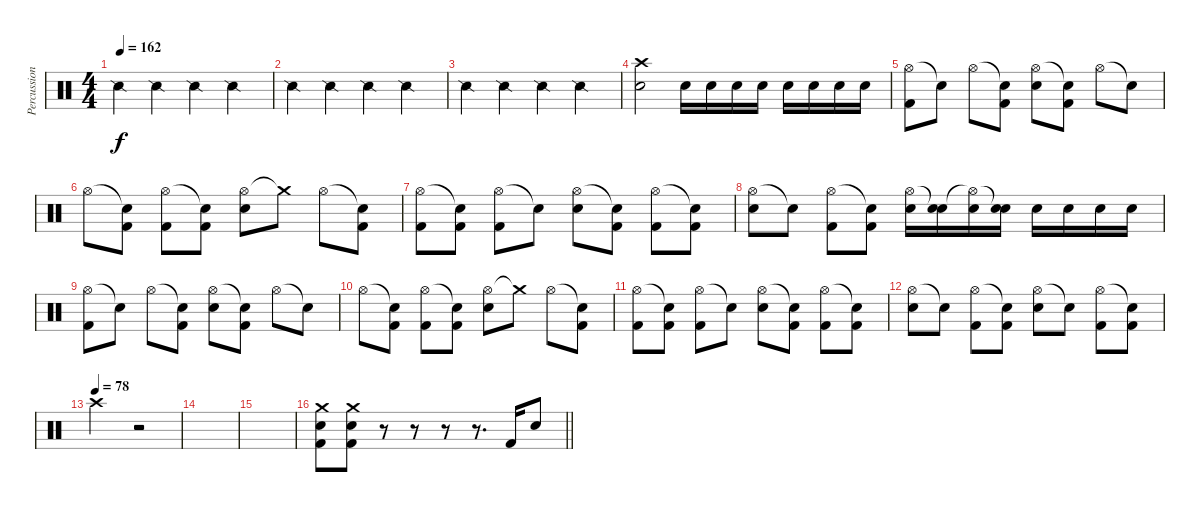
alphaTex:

\track ("Percussioni" "Percussion") {instrument percussion}
\staff {score}
\articulation defaults
\ts (4 4)
\tempo 162
\clef neutral
\ks c "Snare (side stick) 2".4{dy f} "Snare (side stick) 2".4 "Snare (side stick) 2".4 "Snare (side stick) 2".4
|
"Snare (side stick) 2".4 "Snare (side stick) 2".4 "Snare (side stick) 2".4 "Snare (side stick) 2".4 |
"Snare (side stick) 2".4 "Snare (side stick) 2".4 "Snare (side stick) 2".4 "Snare (side stick) 2".4 |
("Crash high (hit)" "Snare (hit) 2").2 "Snare (hit) 2".16 "Snare (hit) 2".16 "Snare (hit) 2".16 "Snare (hit) 2".16 "Snare (hit) 2".16 "Snare (hit) 2".16 "Snare (hit) 2".16 "Snare (hit) 2".16 |
("Hi-Hat (open)" "Kick (hit) 2").8 "Snare (hit)"{t}.8 "Hi-Hat (open)".8 ("Snare (hit)"{t} "Kick (hit) 2").8 ("Hi-Hat (open)" "Snare (hit) 2").8 ("Snare (hit)"{t} "Kick (hit) 2").8 "Hi-Hat (open)".8 "Snare (hit)"{t}.8 |
"Hi-Hat (open)".8 ("Snare (hit)"{t} "Kick (hit) 2").8 ("Hi-Hat (open)" "Kick (hit) 2").8 ("Snare (hit)"{t} "Kick (hit) 2").8 ("Hi-Hat (open)" "Snare (hit) 2").8 "Crash medium (hit)"{t}.8 "Hi-Hat (open)".8 ("Snare (hit)"{t} "Kick (hit) 2").8 |
("Hi-Hat (open)" "Kick (hit) 2").8 ("Snare (hit)"{t} "Kick (hit) 2").8 ("Hi-Hat (open)" "Kick (hit) 2").8 "Snare (hit)"{t}.8 ("Hi-Hat (open)" "Snare (hit) 2").8 ("Snare (hit)"{t} "Kick (hit) 2").8 ("Hi-Hat (open)" "Kick (hit) 2").8 ("Snare (hit)"{t} "Kick (hit) 2").8 |
("Hi-Hat (open)" "Snare (hit) 2").8 "Snare (hit)"{t}.8 ("Hi-Hat (open)" "Kick (hit) 2").8 ("Snare (hit)"{t} "Kick (hit) 2").8 ("Hi-Hat (open)" "Snare (hit) 2").16 ("Snare (hit)"{t} "Snare (hit) 2").16 ("Hi-Hat (open)"{t} "Snare (hit) 2").16 ("Snare (hit)"{t} "Snare (hit) 2").16 "Snare (hit) 2".16 "Snare (hit) 2".16 "Snare (hit) 2".16 "Snare (hit) 2".16 |
("Hi-Hat (open)" "Kick (hit) 2").8 "Snare (hit)"{t}.8 "Hi-Hat (open)".8 ("Snare (hit)"{t} "Kick (hit) 2").8 ("Hi-Hat (open)" "Snare (hit) 2").8 ("Snare (hit)"{t} "Kick (hit) 2").8 "Hi-Hat (open)".8 "Snare (hit)"{t}.8 |
"Hi-Hat (open)".8 ("Snare (hit)"{t} "Kick (hit) 2").8 ("Hi-Hat (open)" "Kick (hit) 2").8 ("Snare (hit)"{t} "Kick (hit) 2").8 ("Hi-Hat (open)" "Snare (hit) 2").8 "Crash medium (hit)"{t}.8 "Hi-Hat (open)".8 ("Snare (hit)"{t} "Kick (hit) 2").8 |
("Hi-Hat (open)" "Kick (hit) 2").8 ("Snare (hit)"{t} "Kick (hit) 2").8 ("Hi-Hat (open)" "Kick (hit) 2").8 "Snare (hit)"{t}.8 ("Hi-Hat (open)" "Snare (hit) 2").8 ("Snare (hit)"{t} "Kick (hit) 2").8 ("Hi-Hat (open)" "Kick (hit) 2").8 ("Snare (hit)"{t} "Kick (hit) 2").8 |
("Hi-Hat (open)" "Snare (hit) 2").8 "Snare (hit)"{t}.8 ("Hi-Hat (open)" "Kick (hit) 2").8 ("Snare (hit)"{t} "Kick (hit) 2").8 ("Hi-Hat (open)" "Snare (hit) 2").8 "Snare (hit)"{t}.8 ("Hi-Hat (open)" "Kick (hit) 2").8 ("Snare (hit)"{t} "Kick (hit) 2").8 |
\tempo (78)
"Crash high (hit)".2 r.2 |
|
|
\barLineRight lightlight
("Crash medium (hit)" "Snare (hit) 2" "Kick (hit) 2").8 ("Crash medium (hit)" "Snare (hit) 2" "Kick (hit) 2").8 r.8 r.8 r.8 r.8{d} "Kick (hit) 2".16 "Snare (hit) 2".8
